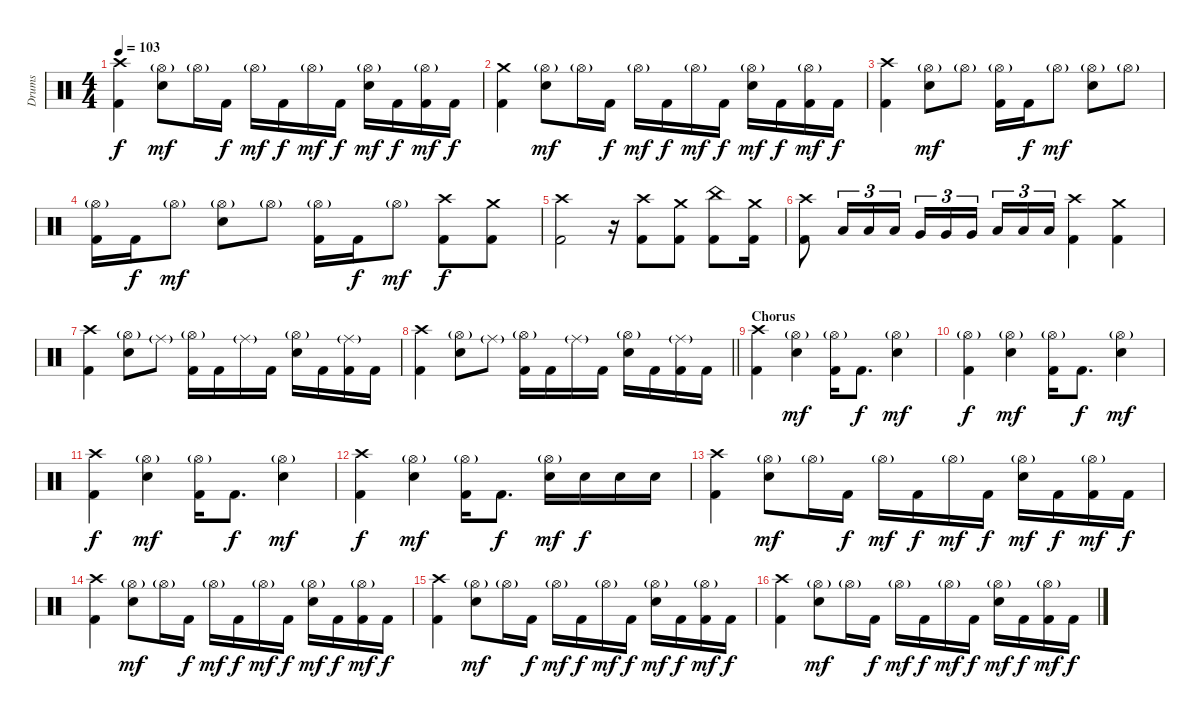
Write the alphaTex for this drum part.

\track ("Drums" "Drums") {instrument percussion}
\staff {score}
\articulation defaults
\ts (4 4)
\tempo 103
\clef neutral
\ks c
("Crash high (hit)" "Kick (hit) 2").4{dy f} ("Hi-Hat (open)"{g} "Snare (hit) 2").8{dy mf} "Hi-Hat (open)"{g}.16 "Kick (hit) 2".16{dy f} "Hi-Hat (open)"{g}.16{dy mf} "Kick (hit) 2".16{dy f} "Hi-Hat (open)"{g}.16{dy mf} "Kick (hit) 2".16{dy f} ("Hi-Hat (open)"{g} "Snare (hit) 2").16{dy mf} "Kick (hit) 2".16{dy f} ("Hi-Hat (open)"{g} "Kick (hit) 2").16{dy mf} "Kick (hit) 2".16{dy f} |
("Crash medium (hit)" "Kick (hit) 2").4 ("Hi-Hat (open)"{g} "Snare (hit) 2").8{dy mf} "Hi-Hat (open)"{g}.16 "Kick (hit) 2".16{dy f} "Hi-Hat (open)"{g}.16{dy mf} "Kick (hit) 2".16{dy f} "Hi-Hat (open)"{g}.16{dy mf} "Kick (hit) 2".16{dy f} ("Hi-Hat (open)"{g} "Snare (hit) 2").16{dy mf} "Kick (hit) 2".16{dy f} ("Hi-Hat (open)"{g} "Kick (hit) 2").16{dy mf} "Kick (hit) 2".16{dy f} |
("Crash high (hit)" "Kick (hit) 2").4 ("Hi-Hat (open)"{g} "Snare (hit) 2").8{dy mf} "Hi-Hat (open)"{g}.8 ("Hi-Hat (open)"{g} "Kick (hit) 2").16 "Kick (hit) 2".16{dy f} "Hi-Hat (open)"{g}.8{dy mf} ("Hi-Hat (open)"{g} "Snare (hit) 2").8 "Hi-Hat (open)"{g}.8 |
("Hi-Hat (open)"{g} "Kick (hit) 2").16 "Kick (hit) 2".16{dy f} "Hi-Hat (open)"{g}.8{dy mf} ("Hi-Hat (open)"{g} "Snare (hit) 2").8 "Hi-Hat (open)"{g}.8 ("Hi-Hat (open)"{g} "Kick (hit) 2").16 "Kick (hit) 2".16{dy f} "Hi-Hat (open)"{g}.8{dy mf} ("Crash high (hit)" "Kick (hit) 2").8{dy f} ("Crash medium (hit)" "Kick (hit) 2").8 |
("Crash high (hit)" "Kick (hit) 2").2 r.16 ("Crash high (hit)" "Kick (hit) 2").8 ("Crash medium (hit)" "Kick (hit) 2").8 ("China (hit)" "Kick (hit) 2").8 ("Crash medium (hit)" "Kick (hit) 2").16 |
("Crash high (hit)" "Kick (hit) 2").8 "Low Tom (hit)".16{tu (3 2)} "Low Tom (hit)".16{tu (3 2)} "Low Tom (hit)".16{tu (3 2)} "Very Low Tom (hit)".16{tu (3 2)} "Very Low Tom (hit)".16{tu (3 2)} "Very Low Tom (hit)".16{tu (3 2)} "Low Floor Tom (hit)".16{tu (3 2)} "Low Floor Tom (hit)".16{tu (3 2)} "Low Floor Tom (hit)".16{tu (3 2)} ("Crash high (hit)" "Kick (hit) 2").4 ("Crash medium (hit)" "Kick (hit) 2").4 |
("Crash high (hit)" "Kick (hit) 2").4 ("Hi-Hat (open)"{g} "Snare (hit) 2").8 "Ride (middle)"{g}.8 ("Hi-Hat (open)"{g} "Kick (hit) 2").16 "Kick (hit) 2".16 "Ride (middle)"{g}.16 "Kick (hit) 2".16 ("Hi-Hat (open)"{g} "Snare (hit) 2").16 "Kick (hit) 2".16 ("Ride (middle)"{g} "Kick (hit) 2").16 "Kick (hit) 2".16 |
\barLineRight lightlight
("Crash high (hit)" "Kick (hit) 2").4 ("Hi-Hat (open)"{g} "Snare (hit) 2").8 "Ride (middle)"{g}.8 ("Hi-Hat (open)"{g} "Kick (hit) 2").16 "Kick (hit) 2".16 "Ride (middle)"{g}.16 "Kick (hit) 2".16 ("Hi-Hat (open)"{g} "Snare (hit) 2").16 "Kick (hit) 2".16 ("Ride (middle)"{g} "Kick (hit) 2").16 "Kick (hit) 2".16 |
\section ("" "Chorus")
("Crash high (hit)" "Kick (hit) 2").4 ("Hi-Hat (open)"{g} "Snare (hit) 2").4{dy mf} ("Hi-Hat (open)"{g} "Kick (hit) 2").16 "Kick (hit) 2".8{d dy f} ("Hi-Hat (open)"{g} "Snare (hit) 2").4{dy mf} |
("Hi-Hat (open)"{g} "Kick (hit) 2").4{dy f} ("Hi-Hat (open)"{g} "Snare (hit) 2").4{dy mf} ("Hi-Hat (open)"{g} "Kick (hit) 2").16 "Kick (hit) 2".8{d dy f} ("Hi-Hat (open)"{g} "Snare (hit) 2").4{dy mf} |
("Crash high (hit)" "Kick (hit) 2").4{dy f} ("Hi-Hat (open)"{g} "Snare (hit) 2").4{dy mf} ("Hi-Hat (open)"{g} "Kick (hit) 2").16 "Kick (hit) 2".8{d dy f} ("Hi-Hat (open)"{g} "Snare (hit) 2").4{dy mf} |
("Crash high (hit)" "Kick (hit) 2").4{dy f} ("Hi-Hat (open)"{g} "Snare (hit) 2").4{dy mf} ("Hi-Hat (open)"{g} "Kick (hit) 2").16 "Kick (hit) 2".8{d dy f} ("Hi-Hat (open)"{g} "Snare (hit) 2").16{dy mf} "Snare (hit) 2".16{dy f} "Snare (hit) 2".16 "Snare (hit) 2".16 |
("Crash high (hit)" "Kick (hit) 2").4 ("Hi-Hat (open)"{g} "Snare (hit) 2").8{dy mf} "Hi-Hat (open)"{g}.16 "Kick (hit) 2".16{dy f} "Hi-Hat (open)"{g}.16{dy mf} "Kick (hit) 2".16{dy f} "Hi-Hat (open)"{g}.16{dy mf} "Kick (hit) 2".16{dy f} ("Hi-Hat (open)"{g} "Snare (hit) 2").16{dy mf} "Kick (hit) 2".16{dy f} ("Hi-Hat (open)"{g} "Kick (hit) 2").16{dy mf} "Kick (hit) 2".16{dy f} |
("Crash high (hit)" "Kick (hit) 2").4 ("Hi-Hat (open)"{g} "Snare (hit) 2").8{dy mf} "Hi-Hat (open)"{g}.16 "Kick (hit) 2".16{dy f} "Hi-Hat (open)"{g}.16{dy mf} "Kick (hit) 2".16{dy f} "Hi-Hat (open)"{g}.16{dy mf} "Kick (hit) 2".16{dy f} ("Hi-Hat (open)"{g} "Snare (hit) 2").16{dy mf} "Kick (hit) 2".16{dy f} ("Hi-Hat (open)"{g} "Kick (hit) 2").16{dy mf} "Kick (hit) 2".16{dy f} |
("Crash high (hit)" "Kick (hit) 2").4 ("Hi-Hat (open)"{g} "Snare (hit) 2").8{dy mf} "Hi-Hat (open)"{g}.16 "Kick (hit) 2".16{dy f} "Hi-Hat (open)"{g}.16{dy mf} "Kick (hit) 2".16{dy f} "Hi-Hat (open)"{g}.16{dy mf} "Kick (hit) 2".16{dy f} ("Hi-Hat (open)"{g} "Snare (hit) 2").16{dy mf} "Kick (hit) 2".16{dy f} ("Hi-Hat (open)"{g} "Kick (hit) 2").16{dy mf} "Kick (hit) 2".16{dy f} |
("Crash high (hit)" "Kick (hit) 2").4 ("Hi-Hat (open)"{g} "Snare (hit) 2").8{dy mf} "Hi-Hat (open)"{g}.16 "Kick (hit) 2".16{dy f} "Hi-Hat (open)"{g}.16{dy mf} "Kick (hit) 2".16{dy f} "Hi-Hat (open)"{g}.16{dy mf} "Kick (hit) 2".16{dy f} ("Hi-Hat (open)"{g} "Snare (hit) 2").16{dy mf} "Kick (hit) 2".16{dy f} ("Hi-Hat (open)"{g} "Kick (hit) 2").16{dy mf} "Kick (hit) 2".16{dy f}
